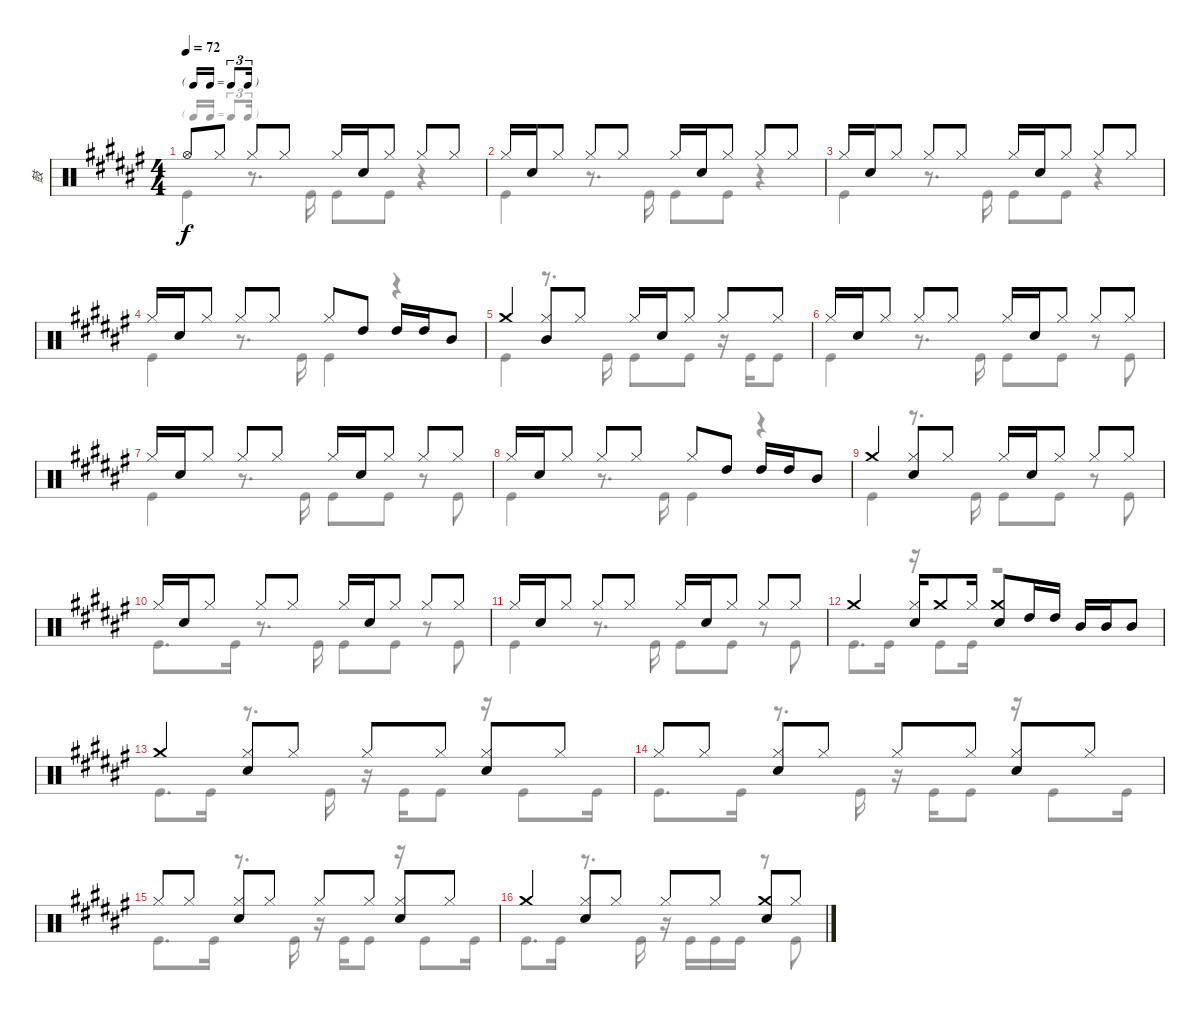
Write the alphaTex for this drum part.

\track ("鼓" "鼓") {instrument percussion}
\staff {score}
\articulation defaults
\voice
\ts (4 4)
\tf triplet16th
\tempo 72
\clef neutral
\ks f# "Hi-Hat (open)".8{dy f} "Hi-Hat (closed)".8 "Hi-Hat (closed)".8 "Hi-Hat (closed)".8 "Hi-Hat (closed)".16 "Snare (hit) 2".16 "Hi-Hat (closed)".8 "Hi-Hat (closed)".8 "Hi-Hat (closed)".8
|
"Hi-Hat (closed)".16 "Snare (hit) 2".16 "Hi-Hat (closed)".8 "Hi-Hat (closed)".8 "Hi-Hat (closed)".8 "Hi-Hat (closed)".16 "Snare (hit) 2".16 "Hi-Hat (closed)".8 "Hi-Hat (closed)".8 "Hi-Hat (closed)".8 |
"Hi-Hat (closed)".16 "Snare (hit) 2".16 "Hi-Hat (closed)".8 "Hi-Hat (closed)".8 "Hi-Hat (closed)".8 "Hi-Hat (closed)".16 "Snare (hit) 2".16 "Hi-Hat (closed)".8 "Hi-Hat (closed)".8 "Hi-Hat (closed)".8 |
"Hi-Hat (closed)".16 "Snare (hit) 2".16 "Hi-Hat (closed)".8 "Hi-Hat (closed)".8 "Hi-Hat (closed)".8 "Hi-Hat (closed)".8 "High Tom (hit)".8 "High Tom (hit)".16 "High Tom (hit)".16 "Mid Tom (hit)".8 |
"Crash medium (hit)".4 ("Hi-Hat (closed)" "Mid Tom (hit)").8 "Hi-Hat (closed)".8 "Hi-Hat (closed)".16 "Snare (hit) 2".16 "Hi-Hat (closed)".8 "Hi-Hat (closed)".8 "Hi-Hat (closed)".8 |
"Hi-Hat (closed)".16 "Snare (hit) 2".16 "Hi-Hat (closed)".8 "Hi-Hat (closed)".8 "Hi-Hat (closed)".8 "Hi-Hat (closed)".16 "Snare (hit) 2".16 "Hi-Hat (closed)".8 "Hi-Hat (closed)".8 "Hi-Hat (closed)".8 |
"Hi-Hat (closed)".16 "Snare (hit) 2".16 "Hi-Hat (closed)".8 "Hi-Hat (closed)".8 "Hi-Hat (closed)".8 "Hi-Hat (closed)".16 "Snare (hit) 2".16 "Hi-Hat (closed)".8 "Hi-Hat (closed)".8 "Hi-Hat (closed)".8 |
"Hi-Hat (closed)".16 "Snare (hit) 2".16 "Hi-Hat (closed)".8 "Hi-Hat (closed)".8 "Hi-Hat (closed)".8 "Hi-Hat (closed)".8 "High Tom (hit)".8 "High Tom (hit)".16 "High Tom (hit)".16 "Mid Tom (hit)".8 |
"Crash medium (hit)".4 ("Hi-Hat (closed)" "Snare (hit) 2").8 "Hi-Hat (closed)".8 "Hi-Hat (closed)".16 "Snare (hit) 2".16 "Hi-Hat (closed)".8 "Hi-Hat (closed)".8 "Hi-Hat (closed)".8 |
"Hi-Hat (closed)".16 "Snare (hit) 2".16 "Hi-Hat (closed)".8 "Hi-Hat (closed)".8 "Hi-Hat (closed)".8 "Hi-Hat (closed)".16 "Snare (hit) 2".16 "Hi-Hat (closed)".8 "Hi-Hat (closed)".8 "Hi-Hat (closed)".8 |
"Hi-Hat (closed)".16 "Snare (hit) 2".16 "Hi-Hat (closed)".8 "Hi-Hat (closed)".8 "Hi-Hat (closed)".8 "Hi-Hat (closed)".16 "Snare (hit) 2".16 "Hi-Hat (closed)".8 "Hi-Hat (closed)".8 "Hi-Hat (closed)".8 |
"Crash medium (hit)".4 ("Hi-Hat (closed)" "Snare (hit) 2").16 "Crash medium (hit)".8 "Hi-Hat (closed)".16 ("Crash medium (hit)" "Snare (hit) 2").8 "High Tom (hit)".16 "High Tom (hit)".16 "Mid Tom (hit)".16 "Mid Tom (hit)".16 "Mid Tom (hit)".8 |
"Crash medium (hit)".4 ("Hi-Hat (closed)" "Snare (hit) 2").8 "Hi-Hat (closed)".8 "Hi-Hat (closed)".8 "Hi-Hat (closed)".8 ("Hi-Hat (closed)" "Snare (hit) 2").8 "Hi-Hat (closed)".8 |
"Hi-Hat (closed)".8 "Hi-Hat (closed)".8 ("Hi-Hat (closed)" "Snare (hit) 2").8 "Hi-Hat (closed)".8 "Hi-Hat (closed)".8 "Hi-Hat (closed)".8 ("Hi-Hat (closed)" "Snare (hit) 2").8 "Hi-Hat (closed)".8 |
"Hi-Hat (closed)".8 "Hi-Hat (closed)".8 ("Hi-Hat (closed)" "Snare (hit) 2").8 "Hi-Hat (closed)".8 "Hi-Hat (closed)".8 "Hi-Hat (closed)".8 ("Hi-Hat (closed)" "Snare (hit) 2").8 "Hi-Hat (closed)".8 |
"Crash medium (hit)".4 ("Hi-Hat (closed)" "Snare (hit) 2").8 "Hi-Hat (closed)".8 "Hi-Hat (closed)".8 "Hi-Hat (closed)".8 ("Crash medium (hit)" "Snare (hit) 2").8 "Hi-Hat (closed)".8
\voice
\clef neutral
\ottava regular
\simile none
\ks f# "Kick (hit)".4{dy f}
r.8{d} "Kick (hit)".16 "Kick (hit)".8 "Kick (hit)".8 r.4 |
"Kick (hit)".4 r.8{d} "Kick (hit)".16 "Kick (hit)".8 "Kick (hit)".8 r.4 |
"Kick (hit)".4 r.8{d} "Kick (hit)".16 "Kick (hit)".8 "Kick (hit)".8 r.4 |
"Kick (hit)".4 r.8{d} "Kick (hit)".16 "Kick (hit)".4 r.4 |
"Kick (hit)".4 r.8{d} "Kick (hit)".16 "Kick (hit)".8 "Kick (hit)".8 r.16 "Kick (hit)".16 "Kick (hit)".8 |
"Kick (hit)".4 r.8{d} "Kick (hit)".16 "Kick (hit)".8 "Kick (hit)".8 r.8 "Kick (hit)".8 |
"Kick (hit)".4 r.8{d} "Kick (hit)".16 "Kick (hit)".8 "Kick (hit)".8 r.8 "Kick (hit)".8 |
"Kick (hit)".4 r.8{d} "Kick (hit)".16 "Kick (hit)".4 r.4 |
"Kick (hit)".4 r.8{d} "Kick (hit)".16 "Kick (hit)".8 "Kick (hit)".8 r.8 "Kick (hit)".8 |
"Kick (hit)".8{d} "Kick (hit)".16 r.8{d} "Kick (hit)".16 "Kick (hit)".8 "Kick (hit)".8 r.8 "Kick (hit)".8 |
"Kick (hit)".4 r.8{d} "Kick (hit)".16 "Kick (hit)".8 "Kick (hit)".8 r.8 "Kick (hit)".8 |
"Kick (hit)".8{d} "Kick (hit)".16 r.16 "Kick (hit)".8 "Kick (hit)".16 r.2 |
"Kick (hit)".8{d} "Kick (hit)".16 r.8{d} "Kick (hit)".16 r.16 "Kick (hit)".16 "Kick (hit)".8 r.16 "Kick (hit)".8 "Kick (hit)".16 |
"Kick (hit)".8{d} "Kick (hit)".16 r.8{d} "Kick (hit)".16 r.16 "Kick (hit)".16 "Kick (hit)".8 r.16 "Kick (hit)".8 "Kick (hit)".16 |
"Kick (hit)".8{d} "Kick (hit)".16 r.8{d} "Kick (hit)".16 r.16 "Kick (hit)".16 "Kick (hit)".8 r.16 "Kick (hit)".8 "Kick (hit)".16 |
"Kick (hit)".8{d} "Kick (hit)".16 r.8{d} "Kick (hit)".16 r.16 "Kick (hit)".16 "Kick (hit)".16 "Kick (hit)".16 r.8 "Kick (hit)".8
